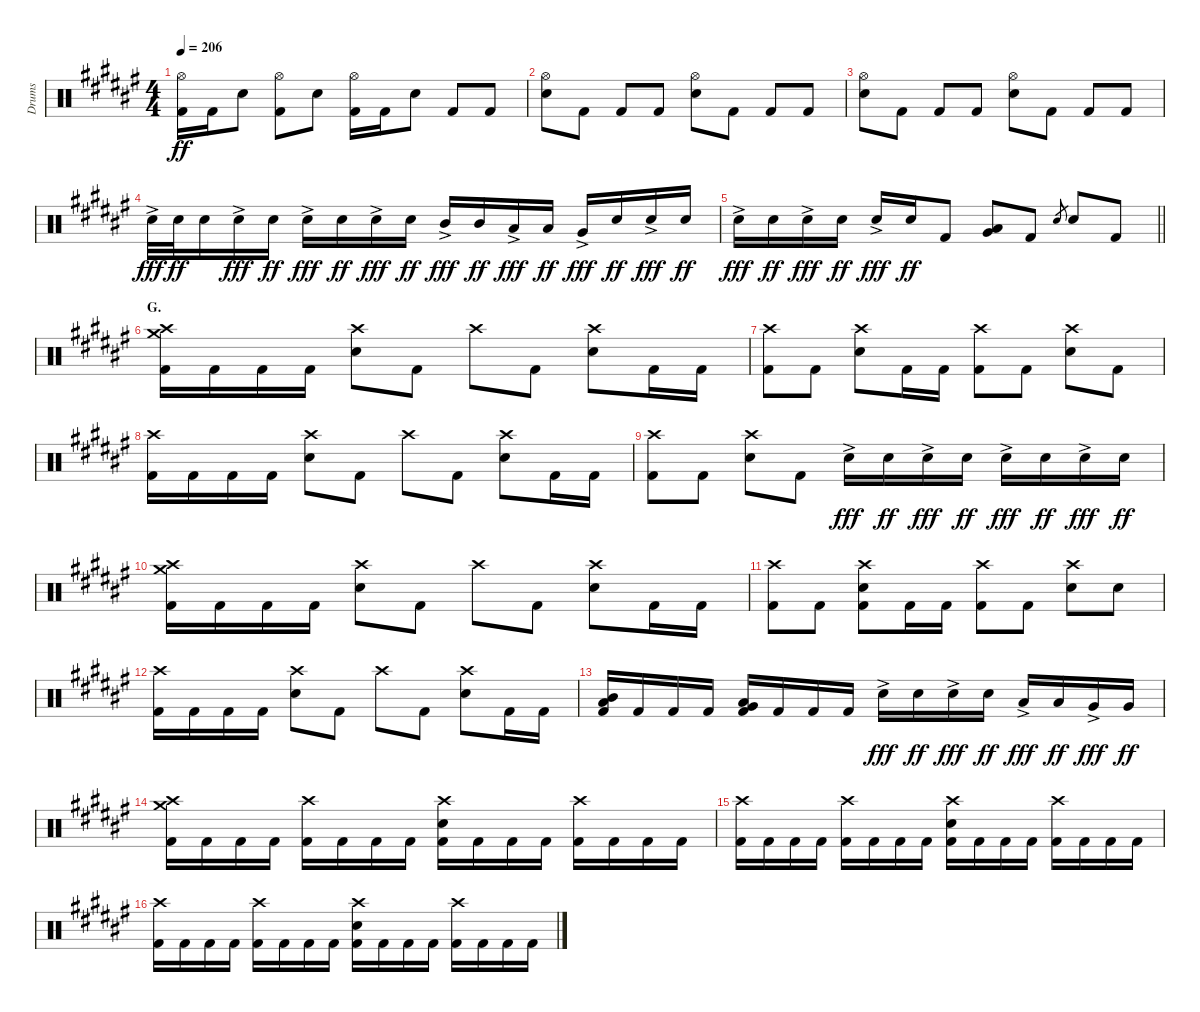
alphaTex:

\track ("Drums" "Drums") {instrument percussion}
\staff {score}
\articulation defaults
\ts (4 4)
\tempo 206
\clef neutral
\ks f#
("Hi-Hat (open)" "Kick (hit) 2").16{dy ff} "Kick (hit) 2".16 "Electric Snare (hit)".8 ("Hi-Hat (open)" "Kick (hit) 2").8 "Electric Snare (hit)".8 ("Hi-Hat (open)" "Kick (hit) 2").16 "Kick (hit) 2".16 "Electric Snare (hit)".8 "Kick (hit) 2".8 "Kick (hit) 2".8 |
("Hi-Hat (open)" "Electric Snare (hit)").8 "Kick (hit) 2".8 "Kick (hit) 2".8 "Kick (hit) 2".8 ("Hi-Hat (open)" "Electric Snare (hit)").8 "Kick (hit) 2".8 "Kick (hit) 2".8 "Kick (hit) 2".8 |
("Hi-Hat (open)" "Electric Snare (hit)").8 "Kick (hit) 2".8 "Kick (hit) 2".8 "Kick (hit) 2".8 ("Hi-Hat (open)" "Electric Snare (hit)").8 "Kick (hit) 2".8 "Kick (hit) 2".8 "Kick (hit) 2".8 |
"Electric Snare (hit)"{ac}.32{dy fff} "Electric Snare (hit)".32{dy ff} "Electric Snare (hit)".16 "Electric Snare (hit)"{ac}.16{dy fff} "Electric Snare (hit)".16{dy ff} "Electric Snare (hit)"{ac}.16{dy fff} "Electric Snare (hit)".16{dy ff} "Electric Snare (hit)"{ac}.16{dy fff} "Electric Snare (hit)".16{dy ff} "Mid Tom (hit)"{ac}.16{dy fff} "Mid Tom (hit)".16{dy ff} "Low Tom (hit)"{ac}.16{dy fff} "Low Tom (hit)".16{dy ff} "Very Low Tom (hit)"{ac}.16{dy fff} "Electric Snare (hit)".16{dy ff} "Electric Snare (hit)"{ac}.16{dy fff} "Electric Snare (hit)".16{dy ff} |
\barLineRight lightlight "Electric Snare (hit)"{ac}.16{dy fff} "Electric Snare (hit)".16{dy ff} "Electric Snare (hit)"{ac}.16{dy fff} "Electric Snare (hit)".16{dy ff} "Electric Snare (hit)"{ac}.16{dy fff} "Electric Snare (hit)".16{dy ff} "Kick (hit) 2".8
("Low Tom (hit)" "Very Low Tom (hit)").8{bu 60} "Kick (hit) 2".8 "Electric Snare (hit)".8{gr} "Electric Snare (hit)".8 "Kick (hit) 2".8 |
\section ("" "G.")
("Crash medium (hit)" "Crash high (hit)" "Kick (hit) 2").16 "Kick (hit) 2".16 "Kick (hit) 2".16 "Kick (hit) 2".16 ("Crash high (hit)" "Electric Snare (hit)").8 "Kick (hit) 2".8 "Crash high (hit)".8 "Kick (hit) 2".8 ("Crash high (hit)" "Electric Snare (hit)").8 "Kick (hit) 2".16 "Kick (hit) 2".16 |
("Crash high (hit)" "Kick (hit) 2").8 "Kick (hit) 2".8 ("Crash high (hit)" "Electric Snare (hit)").8 "Kick (hit) 2".16 "Kick (hit) 2".16 ("Crash high (hit)" "Kick (hit) 2").8 "Kick (hit) 2".8 ("Crash high (hit)" "Electric Snare (hit)").8 "Kick (hit) 2".8 |
("Crash high (hit)" "Kick (hit) 2").16 "Kick (hit) 2".16 "Kick (hit) 2".16 "Kick (hit) 2".16 ("Crash high (hit)" "Electric Snare (hit)").8 "Kick (hit) 2".8 "Crash high (hit)".8 "Kick (hit) 2".8 ("Crash high (hit)" "Electric Snare (hit)").8 "Kick (hit) 2".16 "Kick (hit) 2".16 |
("Crash high (hit)" "Kick (hit) 2").8 "Kick (hit) 2".8 ("Crash high (hit)" "Electric Snare (hit)").8 "Kick (hit) 2".8 "Electric Snare (hit)"{ac}.16{dy fff} "Electric Snare (hit)".16{dy ff} "Electric Snare (hit)"{ac}.16{dy fff} "Electric Snare (hit)".16{dy ff} "Electric Snare (hit)"{ac}.16{dy fff} "Electric Snare (hit)".16{dy ff} "Electric Snare (hit)"{ac}.16{dy fff} "Electric Snare (hit)".16{dy ff} |
("Crash medium (hit)" "Crash high (hit)" "Kick (hit) 2").16 "Kick (hit) 2".16 "Kick (hit) 2".16 "Kick (hit) 2".16 ("Crash high (hit)" "Electric Snare (hit)").8 "Kick (hit) 2".8 "Crash high (hit)".8 "Kick (hit) 2".8 ("Crash high (hit)" "Electric Snare (hit)").8 "Kick (hit) 2".16 "Kick (hit) 2".16 |
("Crash high (hit)" "Kick (hit) 2").8 "Kick (hit) 2".8 ("Crash high (hit)" "Electric Snare (hit)" "Kick (hit) 2").8 "Kick (hit) 2".16 "Kick (hit) 2".16 ("Crash high (hit)" "Kick (hit) 2").8 "Kick (hit) 2".8 ("Crash high (hit)" "Electric Snare (hit)").8 "Electric Snare (hit)".8 |
("Crash high (hit)" "Kick (hit) 2").16 "Kick (hit) 2".16 "Kick (hit) 2".16 "Kick (hit) 2".16 ("Crash high (hit)" "Electric Snare (hit)").8 "Kick (hit) 2".8 "Crash high (hit)".8 "Kick (hit) 2".8 ("Crash high (hit)" "Electric Snare (hit)").8 "Kick (hit) 2".16 "Kick (hit) 2".16 |
("Mid Tom (hit)" "Low Tom (hit)" "Kick (hit) 2").16 "Kick (hit) 2".16 "Kick (hit) 2".16 "Kick (hit) 2".16 ("Low Tom (hit)" "Very Low Tom (hit)" "Kick (hit) 2").16 "Kick (hit) 2".16 "Kick (hit) 2".16 "Kick (hit) 2".16 "Electric Snare (hit)"{ac}.16{dy fff} "Electric Snare (hit)".16{dy ff} "Electric Snare (hit)"{ac}.16{dy fff} "Electric Snare (hit)".16{dy ff} "Low Tom (hit)"{ac}.16{dy fff} "Low Tom (hit)".16{dy ff} "Very Low Tom (hit)"{ac}.16{dy fff} "Very Low Tom (hit)".16{dy ff} |
("Crash medium (hit)" "Crash high (hit)" "Kick (hit) 2").16 "Kick (hit) 2".16 "Kick (hit) 2".16 "Kick (hit) 2".16 ("Crash high (hit)" "Kick (hit) 2").16 "Kick (hit) 2".16 "Kick (hit) 2".16 "Kick (hit) 2".16 ("Crash high (hit)" "Electric Snare (hit)" "Kick (hit) 2").16 "Kick (hit) 2".16 "Kick (hit) 2".16 "Kick (hit) 2".16 ("Crash high (hit)" "Kick (hit) 2").16 "Kick (hit) 2".16 "Kick (hit) 2".16 "Kick (hit) 2".16 |
("Crash high (hit)" "Kick (hit) 2").16 "Kick (hit) 2".16 "Kick (hit) 2".16 "Kick (hit) 2".16 ("Crash high (hit)" "Kick (hit) 2").16 "Kick (hit) 2".16 "Kick (hit) 2".16 "Kick (hit) 2".16 ("Crash high (hit)" "Electric Snare (hit)" "Kick (hit) 2").16 "Kick (hit) 2".16 "Kick (hit) 2".16 "Kick (hit) 2".16 ("Crash high (hit)" "Kick (hit) 2").16 "Kick (hit) 2".16 "Kick (hit) 2".16 "Kick (hit) 2".16 |
("Crash high (hit)" "Kick (hit) 2").16 "Kick (hit) 2".16 "Kick (hit) 2".16 "Kick (hit) 2".16 ("Crash high (hit)" "Kick (hit) 2").16 "Kick (hit) 2".16 "Kick (hit) 2".16 "Kick (hit) 2".16 ("Crash high (hit)" "Electric Snare (hit)" "Kick (hit) 2").16 "Kick (hit) 2".16 "Kick (hit) 2".16 "Kick (hit) 2".16 ("Crash high (hit)" "Kick (hit) 2").16 "Kick (hit) 2".16 "Kick (hit) 2".16 "Kick (hit) 2".16
